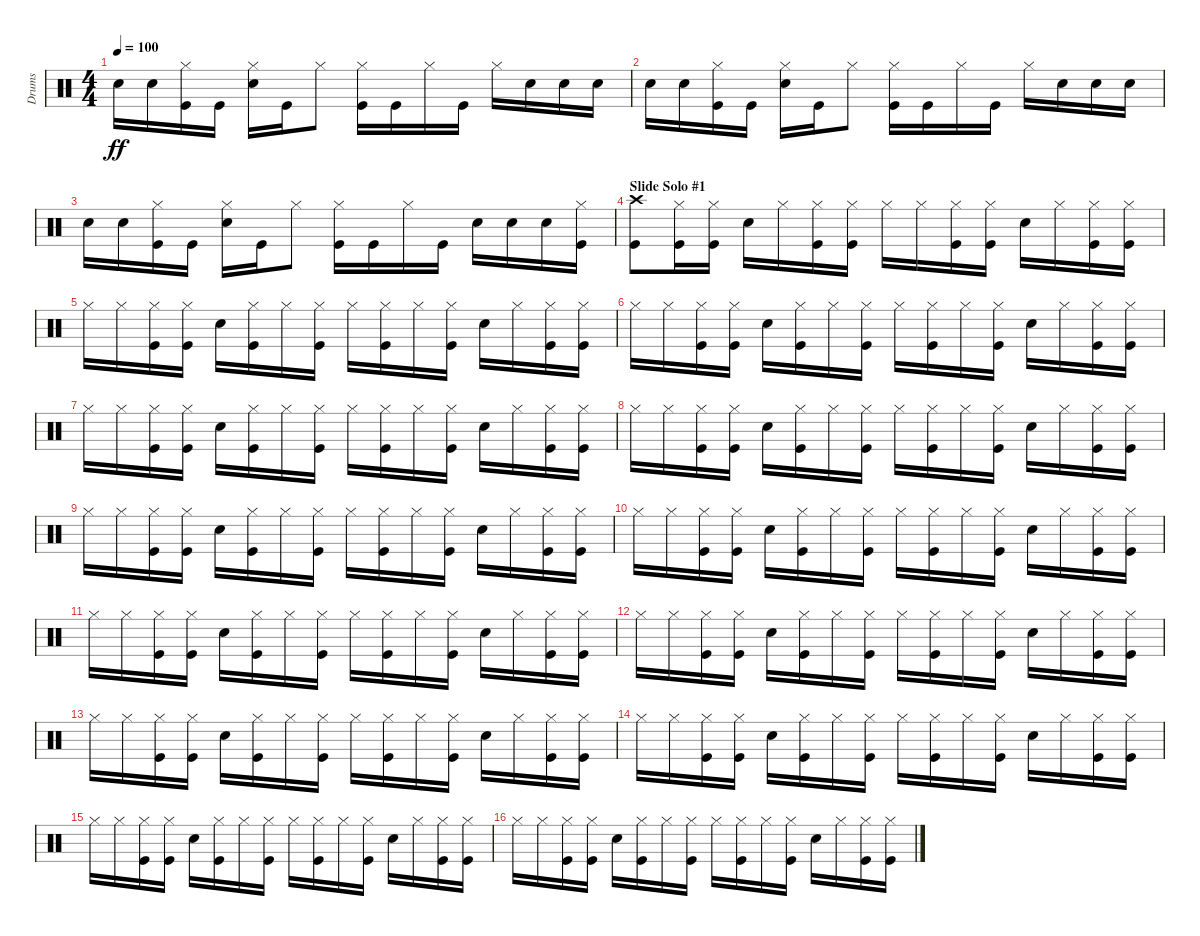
\track ("Drums" "Drums") {instrument percussion}
\staff {score}
\articulation defaults
\ts (4 4)
\tempo 100
\clef neutral
\ks c "Electric Snare (hit)".16{dy ff} "Electric Snare (hit)".16
("Hi-Hat (closed)" "Kick (hit)").16 "Kick (hit)".16 ("Hi-Hat (closed)" "Electric Snare (hit)").16 "Kick (hit)".16 "Hi-Hat (closed)".8 ("Hi-Hat (closed)" "Kick (hit)").16 "Kick (hit)".16 "Hi-Hat (closed)".16 "Kick (hit)".16 "Hi-Hat (closed)".16 "Electric Snare (hit)".16 "Electric Snare (hit)".16 "Electric Snare (hit)".16 |
"Electric Snare (hit)".16 "Electric Snare (hit)".16 ("Hi-Hat (closed)" "Kick (hit)").16 "Kick (hit)".16 ("Hi-Hat (closed)" "Electric Snare (hit)").16 "Kick (hit)".16 "Hi-Hat (closed)".8 ("Hi-Hat (closed)" "Kick (hit)").16 "Kick (hit)".16 "Hi-Hat (closed)".16 "Kick (hit)".16 "Hi-Hat (closed)".16 "Electric Snare (hit)".16 "Electric Snare (hit)".16 "Electric Snare (hit)".16 |
"Electric Snare (hit)".16 "Electric Snare (hit)".16 ("Hi-Hat (closed)" "Kick (hit)").16 "Kick (hit)".16 ("Hi-Hat (closed)" "Electric Snare (hit)").16 "Kick (hit)".16 "Hi-Hat (closed)".8 ("Hi-Hat (closed)" "Kick (hit)").16 "Kick (hit)".16 "Hi-Hat (closed)".16 "Kick (hit)".16 "Electric Snare (hit)".16 "Electric Snare (hit)".16 "Electric Snare (hit)".16 ("Hi-Hat (closed)" "Kick (hit)").16 |
\section ("" "Slide Solo #1")
("Crash high (hit)" "Kick (hit)").8 ("Hi-Hat (closed)" "Kick (hit)").16 ("Hi-Hat (closed)" "Kick (hit)").16 "Electric Snare (hit)".16 "Hi-Hat (closed)".16 ("Hi-Hat (closed)" "Kick (hit)").16 ("Hi-Hat (closed)" "Kick (hit)").16 "Hi-Hat (closed)".16 "Hi-Hat (closed)".16 ("Hi-Hat (closed)" "Kick (hit)").16 ("Hi-Hat (closed)" "Kick (hit)").16 "Electric Snare (hit)".16 "Hi-Hat (closed)".16 ("Hi-Hat (closed)" "Kick (hit)").16 ("Hi-Hat (closed)" "Kick (hit)").16 |
"Hi-Hat (closed)".16 "Hi-Hat (closed)".16 ("Hi-Hat (closed)" "Kick (hit)").16 ("Hi-Hat (closed)" "Kick (hit)").16 "Electric Snare (hit)".16 ("Hi-Hat (closed)" "Kick (hit)").16 "Hi-Hat (closed)".16 ("Hi-Hat (closed)" "Kick (hit)").16 "Hi-Hat (closed)".16 ("Hi-Hat (closed)" "Kick (hit)").16 "Hi-Hat (closed)".16 ("Hi-Hat (closed)" "Kick (hit)").16 "Electric Snare (hit)".16 "Hi-Hat (closed)".16 ("Hi-Hat (closed)" "Kick (hit)").16 ("Hi-Hat (closed)" "Kick (hit)").16 |
"Hi-Hat (closed)".16 "Hi-Hat (closed)".16 ("Hi-Hat (closed)" "Kick (hit)").16 ("Hi-Hat (closed)" "Kick (hit)").16 "Electric Snare (hit)".16 ("Hi-Hat (closed)" "Kick (hit)").16 "Hi-Hat (closed)".16 ("Hi-Hat (closed)" "Kick (hit)").16 "Hi-Hat (closed)".16 ("Hi-Hat (closed)" "Kick (hit)").16 "Hi-Hat (closed)".16 ("Hi-Hat (closed)" "Kick (hit)").16 "Electric Snare (hit)".16 "Hi-Hat (closed)".16 ("Hi-Hat (closed)" "Kick (hit)").16 ("Hi-Hat (closed)" "Kick (hit)").16 |
"Hi-Hat (closed)".16 "Hi-Hat (closed)".16 ("Hi-Hat (closed)" "Kick (hit)").16 ("Hi-Hat (closed)" "Kick (hit)").16 "Electric Snare (hit)".16 ("Hi-Hat (closed)" "Kick (hit)").16 "Hi-Hat (closed)".16 ("Hi-Hat (closed)" "Kick (hit)").16 "Hi-Hat (closed)".16 ("Hi-Hat (closed)" "Kick (hit)").16 "Hi-Hat (closed)".16 ("Hi-Hat (closed)" "Kick (hit)").16 "Electric Snare (hit)".16 "Hi-Hat (closed)".16 ("Hi-Hat (closed)" "Kick (hit)").16 ("Hi-Hat (closed)" "Kick (hit)").16 |
"Hi-Hat (closed)".16 "Hi-Hat (closed)".16 ("Hi-Hat (closed)" "Kick (hit)").16 ("Hi-Hat (closed)" "Kick (hit)").16 "Electric Snare (hit)".16 ("Hi-Hat (closed)" "Kick (hit)").16 "Hi-Hat (closed)".16 ("Hi-Hat (closed)" "Kick (hit)").16 "Hi-Hat (closed)".16 ("Hi-Hat (closed)" "Kick (hit)").16 "Hi-Hat (closed)".16 ("Hi-Hat (closed)" "Kick (hit)").16 "Electric Snare (hit)".16 "Hi-Hat (closed)".16 ("Hi-Hat (closed)" "Kick (hit)").16 ("Hi-Hat (closed)" "Kick (hit)").16 |
"Hi-Hat (closed)".16 "Hi-Hat (closed)".16 ("Hi-Hat (closed)" "Kick (hit)").16 ("Hi-Hat (closed)" "Kick (hit)").16 "Electric Snare (hit)".16 ("Hi-Hat (closed)" "Kick (hit)").16 "Hi-Hat (closed)".16 ("Hi-Hat (closed)" "Kick (hit)").16 "Hi-Hat (closed)".16 ("Hi-Hat (closed)" "Kick (hit)").16 "Hi-Hat (closed)".16 ("Hi-Hat (closed)" "Kick (hit)").16 "Electric Snare (hit)".16 "Hi-Hat (closed)".16 ("Hi-Hat (closed)" "Kick (hit)").16 ("Hi-Hat (closed)" "Kick (hit)").16 |
"Hi-Hat (closed)".16 "Hi-Hat (closed)".16 ("Hi-Hat (closed)" "Kick (hit)").16 ("Hi-Hat (closed)" "Kick (hit)").16 "Electric Snare (hit)".16 ("Hi-Hat (closed)" "Kick (hit)").16 "Hi-Hat (closed)".16 ("Hi-Hat (closed)" "Kick (hit)").16 "Hi-Hat (closed)".16 ("Hi-Hat (closed)" "Kick (hit)").16 "Hi-Hat (closed)".16 ("Hi-Hat (closed)" "Kick (hit)").16 "Electric Snare (hit)".16 "Hi-Hat (closed)".16 ("Hi-Hat (closed)" "Kick (hit)").16 ("Hi-Hat (closed)" "Kick (hit)").16 |
"Hi-Hat (closed)".16 "Hi-Hat (closed)".16 ("Hi-Hat (closed)" "Kick (hit)").16 ("Hi-Hat (closed)" "Kick (hit)").16 "Electric Snare (hit)".16 ("Hi-Hat (closed)" "Kick (hit)").16 "Hi-Hat (closed)".16 ("Hi-Hat (closed)" "Kick (hit)").16 "Hi-Hat (closed)".16 ("Hi-Hat (closed)" "Kick (hit)").16 "Hi-Hat (closed)".16 ("Hi-Hat (closed)" "Kick (hit)").16 "Electric Snare (hit)".16 "Hi-Hat (closed)".16 ("Hi-Hat (closed)" "Kick (hit)").16 ("Hi-Hat (closed)" "Kick (hit)").16 |
"Hi-Hat (closed)".16 "Hi-Hat (closed)".16 ("Hi-Hat (closed)" "Kick (hit)").16 ("Hi-Hat (closed)" "Kick (hit)").16 "Electric Snare (hit)".16 ("Hi-Hat (closed)" "Kick (hit)").16 "Hi-Hat (closed)".16 ("Hi-Hat (closed)" "Kick (hit)").16 "Hi-Hat (closed)".16 ("Hi-Hat (closed)" "Kick (hit)").16 "Hi-Hat (closed)".16 ("Hi-Hat (closed)" "Kick (hit)").16 "Electric Snare (hit)".16 "Hi-Hat (closed)".16 ("Hi-Hat (closed)" "Kick (hit)").16 ("Hi-Hat (closed)" "Kick (hit)").16 |
"Hi-Hat (closed)".16 "Hi-Hat (closed)".16 ("Hi-Hat (closed)" "Kick (hit)").16 ("Hi-Hat (closed)" "Kick (hit)").16 "Electric Snare (hit)".16 ("Hi-Hat (closed)" "Kick (hit)").16 "Hi-Hat (closed)".16 ("Hi-Hat (closed)" "Kick (hit)").16 "Hi-Hat (closed)".16 ("Hi-Hat (closed)" "Kick (hit)").16 "Hi-Hat (closed)".16 ("Hi-Hat (closed)" "Kick (hit)").16 "Electric Snare (hit)".16 "Hi-Hat (closed)".16 ("Hi-Hat (closed)" "Kick (hit)").16 ("Hi-Hat (closed)" "Kick (hit)").16 |
"Hi-Hat (closed)".16 "Hi-Hat (closed)".16 ("Hi-Hat (closed)" "Kick (hit)").16 ("Hi-Hat (closed)" "Kick (hit)").16 "Electric Snare (hit)".16 ("Hi-Hat (closed)" "Kick (hit)").16 "Hi-Hat (closed)".16 ("Hi-Hat (closed)" "Kick (hit)").16 "Hi-Hat (closed)".16 ("Hi-Hat (closed)" "Kick (hit)").16 "Hi-Hat (closed)".16 ("Hi-Hat (closed)" "Kick (hit)").16 "Electric Snare (hit)".16 "Hi-Hat (closed)".16 ("Hi-Hat (closed)" "Kick (hit)").16 ("Hi-Hat (closed)" "Kick (hit)").16 |
"Hi-Hat (closed)".16 "Hi-Hat (closed)".16 ("Hi-Hat (closed)" "Kick (hit)").16 ("Hi-Hat (closed)" "Kick (hit)").16 "Electric Snare (hit)".16 ("Hi-Hat (closed)" "Kick (hit)").16 "Hi-Hat (closed)".16 ("Hi-Hat (closed)" "Kick (hit)").16 "Hi-Hat (closed)".16 ("Hi-Hat (closed)" "Kick (hit)").16 "Hi-Hat (closed)".16 ("Hi-Hat (closed)" "Kick (hit)").16 "Electric Snare (hit)".16 "Hi-Hat (closed)".16 ("Hi-Hat (closed)" "Kick (hit)").16 ("Hi-Hat (closed)" "Kick (hit)").16 |
"Hi-Hat (closed)".16 "Hi-Hat (closed)".16 ("Hi-Hat (closed)" "Kick (hit)").16 ("Hi-Hat (closed)" "Kick (hit)").16 "Electric Snare (hit)".16 ("Hi-Hat (closed)" "Kick (hit)").16 "Hi-Hat (closed)".16 ("Hi-Hat (closed)" "Kick (hit)").16 "Hi-Hat (closed)".16 ("Hi-Hat (closed)" "Kick (hit)").16 "Hi-Hat (closed)".16 ("Hi-Hat (closed)" "Kick (hit)").16 "Electric Snare (hit)".16 "Hi-Hat (closed)".16 ("Hi-Hat (closed)" "Kick (hit)").16 ("Hi-Hat (closed)" "Kick (hit)").16
